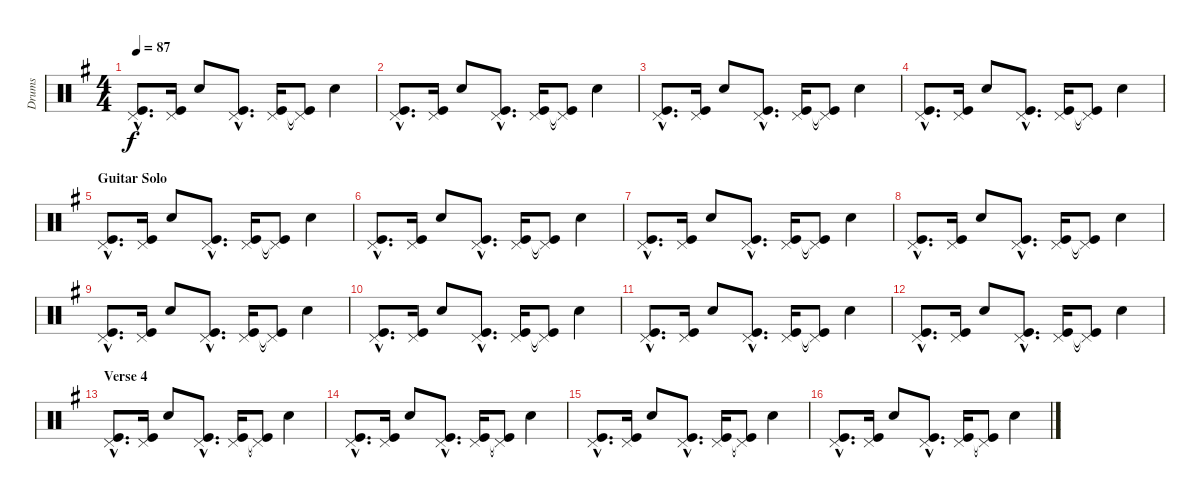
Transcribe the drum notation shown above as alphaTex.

\track ("Drums" "Drums") {instrument percussion}
\staff {score}
\articulation defaults
\ts (4 4)
\tempo 87
\clef neutral
\ks g
("Kick (hit)"{hac} "Pedal Hi-Hat (hit)"{hac}).8{d dy f} ("Kick (hit)" "Pedal Hi-Hat (hit)").16 "Snare (hit) 2".8 ("Kick (hit)"{hac} "Pedal Hi-Hat (hit)"{hac}).8{d} ("Kick (hit)" "Pedal Hi-Hat (hit)").16 ("Kick (hit)"{t} "Pedal Hi-Hat (hit)"{t}).8 "Snare (hit) 2".4 |
("Kick (hit)"{hac} "Pedal Hi-Hat (hit)"{hac}).8{d} ("Kick (hit)" "Pedal Hi-Hat (hit)").16 "Snare (hit) 2".8 ("Kick (hit)"{hac} "Pedal Hi-Hat (hit)"{hac}).8{d} ("Kick (hit)" "Pedal Hi-Hat (hit)").16 ("Kick (hit)"{t} "Pedal Hi-Hat (hit)"{t}).8 "Snare (hit) 2".4 |
("Kick (hit)"{hac} "Pedal Hi-Hat (hit)"{hac}).8{d} ("Kick (hit)" "Pedal Hi-Hat (hit)").16 "Snare (hit) 2".8 ("Kick (hit)"{hac} "Pedal Hi-Hat (hit)"{hac}).8{d} ("Kick (hit)" "Pedal Hi-Hat (hit)").16 ("Kick (hit)"{t} "Pedal Hi-Hat (hit)"{t}).8 "Snare (hit) 2".4 |
("Kick (hit)"{hac} "Pedal Hi-Hat (hit)"{hac}).8{d} ("Kick (hit)" "Pedal Hi-Hat (hit)").16 "Snare (hit) 2".8 ("Kick (hit)"{hac} "Pedal Hi-Hat (hit)"{hac}).8{d} ("Kick (hit)" "Pedal Hi-Hat (hit)").16 ("Kick (hit)"{t} "Pedal Hi-Hat (hit)"{t}).8 "Snare (hit) 2".4 |
\section ("" "Guitar Solo")
("Kick (hit)"{hac} "Pedal Hi-Hat (hit)"{hac}).8{d} ("Kick (hit)" "Pedal Hi-Hat (hit)").16 "Snare (hit) 2".8 ("Kick (hit)"{hac} "Pedal Hi-Hat (hit)"{hac}).8{d} ("Kick (hit)" "Pedal Hi-Hat (hit)").16 ("Kick (hit)"{t} "Pedal Hi-Hat (hit)"{t}).8 "Snare (hit) 2".4 |
("Kick (hit)"{hac} "Pedal Hi-Hat (hit)"{hac}).8{d} ("Kick (hit)" "Pedal Hi-Hat (hit)").16 "Snare (hit) 2".8 ("Kick (hit)"{hac} "Pedal Hi-Hat (hit)"{hac}).8{d} ("Kick (hit)" "Pedal Hi-Hat (hit)").16 ("Kick (hit)"{t} "Pedal Hi-Hat (hit)"{t}).8 "Snare (hit) 2".4 |
("Kick (hit)"{hac} "Pedal Hi-Hat (hit)"{hac}).8{d} ("Kick (hit)" "Pedal Hi-Hat (hit)").16 "Snare (hit) 2".8 ("Kick (hit)"{hac} "Pedal Hi-Hat (hit)"{hac}).8{d} ("Kick (hit)" "Pedal Hi-Hat (hit)").16 ("Kick (hit)"{t} "Pedal Hi-Hat (hit)"{t}).8 "Snare (hit) 2".4 |
("Kick (hit)"{hac} "Pedal Hi-Hat (hit)"{hac}).8{d} ("Kick (hit)" "Pedal Hi-Hat (hit)").16 "Snare (hit) 2".8 ("Kick (hit)"{hac} "Pedal Hi-Hat (hit)"{hac}).8{d} ("Kick (hit)" "Pedal Hi-Hat (hit)").16 ("Kick (hit)"{t} "Pedal Hi-Hat (hit)"{t}).8 "Snare (hit) 2".4 |
("Kick (hit)"{hac} "Pedal Hi-Hat (hit)"{hac}).8{d} ("Kick (hit)" "Pedal Hi-Hat (hit)").16 "Snare (hit) 2".8 ("Kick (hit)"{hac} "Pedal Hi-Hat (hit)"{hac}).8{d} ("Kick (hit)" "Pedal Hi-Hat (hit)").16 ("Kick (hit)"{t} "Pedal Hi-Hat (hit)"{t}).8 "Snare (hit) 2".4 |
("Kick (hit)"{hac} "Pedal Hi-Hat (hit)"{hac}).8{d} ("Kick (hit)" "Pedal Hi-Hat (hit)").16 "Snare (hit) 2".8 ("Kick (hit)"{hac} "Pedal Hi-Hat (hit)"{hac}).8{d} ("Kick (hit)" "Pedal Hi-Hat (hit)").16 ("Kick (hit)"{t} "Pedal Hi-Hat (hit)"{t}).8 "Snare (hit) 2".4 |
("Kick (hit)"{hac} "Pedal Hi-Hat (hit)"{hac}).8{d} ("Kick (hit)" "Pedal Hi-Hat (hit)").16 "Snare (hit) 2".8 ("Kick (hit)"{hac} "Pedal Hi-Hat (hit)"{hac}).8{d} ("Kick (hit)" "Pedal Hi-Hat (hit)").16 ("Kick (hit)"{t} "Pedal Hi-Hat (hit)"{t}).8 "Snare (hit) 2".4 |
("Kick (hit)"{hac} "Pedal Hi-Hat (hit)"{hac}).8{d} ("Kick (hit)" "Pedal Hi-Hat (hit)").16 "Snare (hit) 2".8 ("Kick (hit)"{hac} "Pedal Hi-Hat (hit)"{hac}).8{d} ("Kick (hit)" "Pedal Hi-Hat (hit)").16 ("Kick (hit)"{t} "Pedal Hi-Hat (hit)"{t}).8 "Snare (hit) 2".4 |
\section ("" "Verse 4")
("Kick (hit)"{hac} "Pedal Hi-Hat (hit)"{hac}).8{d} ("Kick (hit)" "Pedal Hi-Hat (hit)").16 "Snare (hit) 2".8 ("Kick (hit)"{hac} "Pedal Hi-Hat (hit)"{hac}).8{d} ("Kick (hit)" "Pedal Hi-Hat (hit)").16 ("Kick (hit)"{t} "Pedal Hi-Hat (hit)"{t}).8 "Snare (hit) 2".4 |
("Kick (hit)"{hac} "Pedal Hi-Hat (hit)"{hac}).8{d} ("Kick (hit)" "Pedal Hi-Hat (hit)").16 "Snare (hit) 2".8 ("Kick (hit)"{hac} "Pedal Hi-Hat (hit)"{hac}).8{d} ("Kick (hit)" "Pedal Hi-Hat (hit)").16 ("Kick (hit)"{t} "Pedal Hi-Hat (hit)"{t}).8 "Snare (hit) 2".4 |
("Kick (hit)"{hac} "Pedal Hi-Hat (hit)"{hac}).8{d} ("Kick (hit)" "Pedal Hi-Hat (hit)").16 "Snare (hit) 2".8 ("Kick (hit)"{hac} "Pedal Hi-Hat (hit)"{hac}).8{d} ("Kick (hit)" "Pedal Hi-Hat (hit)").16 ("Kick (hit)"{t} "Pedal Hi-Hat (hit)"{t}).8 "Snare (hit) 2".4 |
("Kick (hit)"{hac} "Pedal Hi-Hat (hit)"{hac}).8{d} ("Kick (hit)" "Pedal Hi-Hat (hit)").16 "Snare (hit) 2".8 ("Kick (hit)"{hac} "Pedal Hi-Hat (hit)"{hac}).8{d} ("Kick (hit)" "Pedal Hi-Hat (hit)").16 ("Kick (hit)"{t} "Pedal Hi-Hat (hit)"{t}).8 "Snare (hit) 2".4
